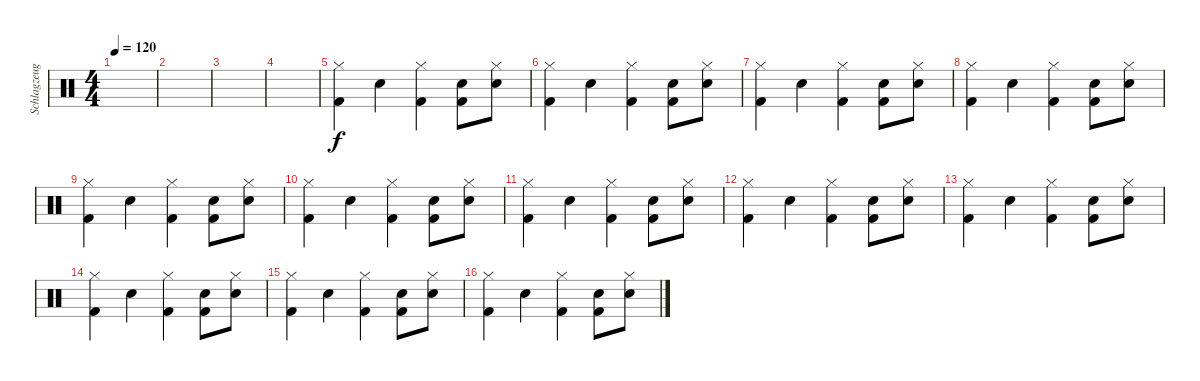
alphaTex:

\track ("Schlagzeug" "Schlagzeug") {instrument percussion}
\staff {score}
\articulation defaults
\ts (4 4)
\tempo 120
\clef neutral
\ks c
|
|
|
|
("Hi-Hat (closed)" "Kick (hit) 2").4 "Electric Snare (hit)".4 ("Hi-Hat (closed)" "Kick (hit) 2").4 ("Electric Snare (hit)" "Kick (hit) 2").8 ("Electric Snare (hit)" "Hi-Hat (closed)").8 |
("Hi-Hat (closed)" "Kick (hit) 2").4 "Electric Snare (hit)".4 ("Hi-Hat (closed)" "Kick (hit) 2").4 ("Electric Snare (hit)" "Kick (hit) 2").8 ("Electric Snare (hit)" "Hi-Hat (closed)").8 |
("Hi-Hat (closed)" "Kick (hit) 2").4 "Electric Snare (hit)".4 ("Hi-Hat (closed)" "Kick (hit) 2").4 ("Electric Snare (hit)" "Kick (hit) 2").8 ("Electric Snare (hit)" "Hi-Hat (closed)").8 |
("Hi-Hat (closed)" "Kick (hit) 2").4 "Electric Snare (hit)".4 ("Hi-Hat (closed)" "Kick (hit) 2").4 ("Electric Snare (hit)" "Kick (hit) 2").8 ("Electric Snare (hit)" "Hi-Hat (closed)").8 |
("Hi-Hat (closed)" "Kick (hit) 2").4 "Electric Snare (hit)".4 ("Hi-Hat (closed)" "Kick (hit) 2").4 ("Electric Snare (hit)" "Kick (hit) 2").8 ("Electric Snare (hit)" "Hi-Hat (closed)").8 |
("Hi-Hat (closed)" "Kick (hit) 2").4 "Electric Snare (hit)".4 ("Hi-Hat (closed)" "Kick (hit) 2").4 ("Electric Snare (hit)" "Kick (hit) 2").8 ("Electric Snare (hit)" "Hi-Hat (closed)").8 |
("Hi-Hat (closed)" "Kick (hit) 2").4 "Electric Snare (hit)".4 ("Hi-Hat (closed)" "Kick (hit) 2").4 ("Electric Snare (hit)" "Kick (hit) 2").8 ("Electric Snare (hit)" "Hi-Hat (closed)").8 |
("Hi-Hat (closed)" "Kick (hit) 2").4 "Electric Snare (hit)".4 ("Hi-Hat (closed)" "Kick (hit) 2").4 ("Electric Snare (hit)" "Kick (hit) 2").8 ("Electric Snare (hit)" "Hi-Hat (closed)").8 |
("Hi-Hat (closed)" "Kick (hit) 2").4 "Electric Snare (hit)".4 ("Hi-Hat (closed)" "Kick (hit) 2").4 ("Electric Snare (hit)" "Kick (hit) 2").8 ("Electric Snare (hit)" "Hi-Hat (closed)").8 |
("Hi-Hat (closed)" "Kick (hit) 2").4 "Electric Snare (hit)".4 ("Hi-Hat (closed)" "Kick (hit) 2").4 ("Electric Snare (hit)" "Kick (hit) 2").8 ("Electric Snare (hit)" "Hi-Hat (closed)").8 |
("Hi-Hat (closed)" "Kick (hit) 2").4 "Electric Snare (hit)".4 ("Hi-Hat (closed)" "Kick (hit) 2").4 ("Electric Snare (hit)" "Kick (hit) 2").8 ("Electric Snare (hit)" "Hi-Hat (closed)").8 |
("Hi-Hat (closed)" "Kick (hit) 2").4 "Electric Snare (hit)".4 ("Hi-Hat (closed)" "Kick (hit) 2").4 ("Electric Snare (hit)" "Kick (hit) 2").8 ("Electric Snare (hit)" "Hi-Hat (closed)").8
